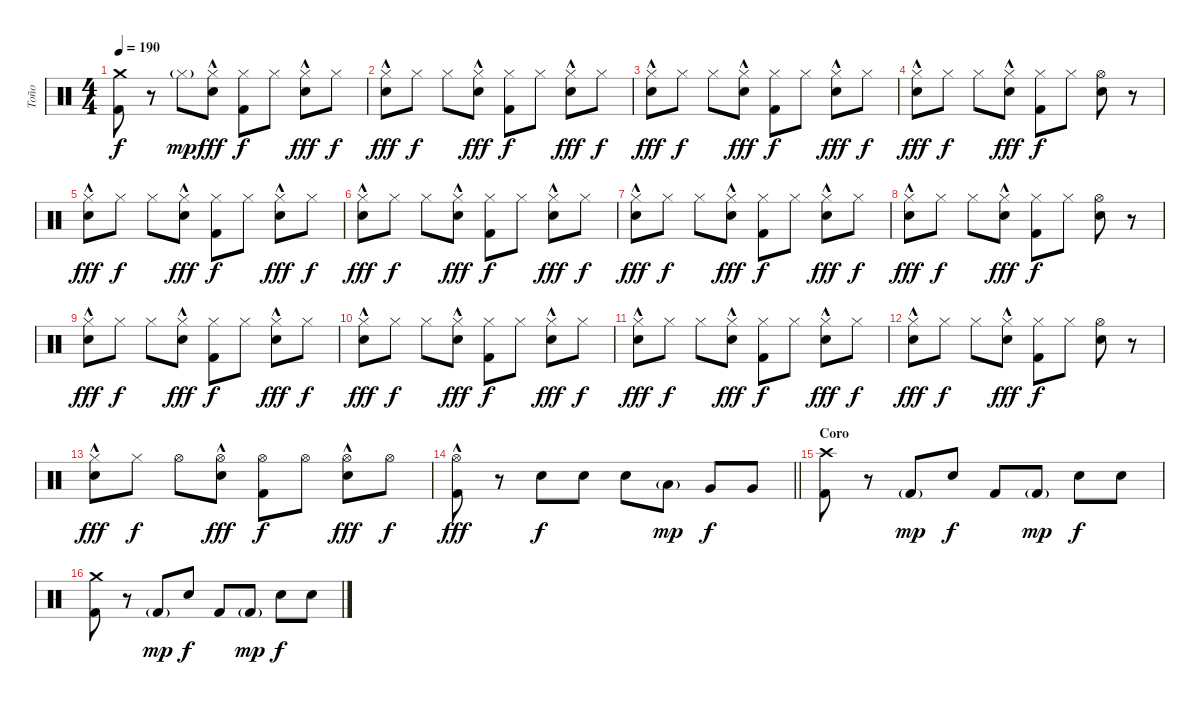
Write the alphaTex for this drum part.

\track ("Toño" "Toño") {instrument percussion}
\staff {score}
\articulation defaults
\ts (4 4)
\tempo 190
\clef neutral
\ks c
("Crash medium (hit)" "Kick (hit) 2").8{dy f} r.8 "Hi-Hat (closed)"{g}.8{dy mp} ("Hi-Hat (closed)"{hac} "Snare (hit) 2").8{dy fff} ("Hi-Hat (closed)" "Kick (hit) 2").8{dy f} "Hi-Hat (closed)".8 ("Hi-Hat (closed)"{hac} "Snare (hit) 2").8{dy fff} "Hi-Hat (closed)".8{dy f} |
("Hi-Hat (closed)"{hac} "Snare (hit) 2").8{dy fff} "Hi-Hat (closed)".8{dy f} "Hi-Hat (closed)".8 ("Hi-Hat (closed)"{hac} "Snare (hit) 2").8{dy fff} ("Hi-Hat (closed)" "Kick (hit) 2").8{dy f} "Hi-Hat (closed)".8 ("Hi-Hat (closed)"{hac} "Snare (hit) 2").8{dy fff} "Hi-Hat (closed)".8{dy f} |
("Hi-Hat (closed)"{hac} "Snare (hit) 2").8{dy fff} "Hi-Hat (closed)".8{dy f} "Hi-Hat (closed)".8 ("Hi-Hat (closed)"{hac} "Snare (hit) 2").8{dy fff} ("Hi-Hat (closed)" "Kick (hit) 2").8{dy f} "Hi-Hat (closed)".8 ("Hi-Hat (closed)"{hac} "Snare (hit) 2").8{dy fff} "Hi-Hat (closed)".8{dy f} |
("Hi-Hat (closed)"{hac} "Snare (hit) 2").8{dy fff} "Hi-Hat (closed)".8{dy f} "Hi-Hat (closed)".8 ("Hi-Hat (closed)"{hac} "Snare (hit) 2").8{dy fff} ("Hi-Hat (closed)" "Kick (hit) 2").8{dy f} "Hi-Hat (closed)".8 ("Hi-Hat (open)" "Snare (hit) 2").8 r.8 |
("Hi-Hat (closed)"{hac} "Snare (hit) 2").8{dy fff} "Hi-Hat (closed)".8{dy f} "Hi-Hat (closed)".8 ("Hi-Hat (closed)"{hac} "Snare (hit) 2").8{dy fff} ("Hi-Hat (closed)" "Kick (hit) 2").8{dy f} "Hi-Hat (closed)".8 ("Hi-Hat (closed)"{hac} "Snare (hit) 2").8{dy fff} "Hi-Hat (closed)".8{dy f} |
("Hi-Hat (closed)"{hac} "Snare (hit) 2").8{dy fff} "Hi-Hat (closed)".8{dy f} "Hi-Hat (closed)".8 ("Hi-Hat (closed)"{hac} "Snare (hit) 2").8{dy fff} ("Hi-Hat (closed)" "Kick (hit) 2").8{dy f} "Hi-Hat (closed)".8 ("Hi-Hat (closed)"{hac} "Snare (hit) 2").8{dy fff} "Hi-Hat (closed)".8{dy f} |
("Hi-Hat (closed)"{hac} "Snare (hit) 2").8{dy fff} "Hi-Hat (closed)".8{dy f} "Hi-Hat (closed)".8 ("Hi-Hat (closed)"{hac} "Snare (hit) 2").8{dy fff} ("Hi-Hat (closed)" "Kick (hit) 2").8{dy f} "Hi-Hat (closed)".8 ("Hi-Hat (closed)"{hac} "Snare (hit) 2").8{dy fff} "Hi-Hat (closed)".8{dy f} |
("Hi-Hat (closed)"{hac} "Snare (hit) 2").8{dy fff} "Hi-Hat (closed)".8{dy f} "Hi-Hat (closed)".8 ("Hi-Hat (closed)"{hac} "Snare (hit) 2").8{dy fff} ("Hi-Hat (closed)" "Kick (hit) 2").8{dy f} "Hi-Hat (closed)".8 ("Hi-Hat (open)" "Snare (hit) 2").8 r.8 |
("Hi-Hat (closed)"{hac} "Snare (hit) 2").8{dy fff} "Hi-Hat (closed)".8{dy f} "Hi-Hat (closed)".8 ("Hi-Hat (closed)"{hac} "Snare (hit) 2").8{dy fff} ("Hi-Hat (closed)" "Kick (hit) 2").8{dy f} "Hi-Hat (closed)".8 ("Hi-Hat (closed)"{hac} "Snare (hit) 2").8{dy fff} "Hi-Hat (closed)".8{dy f} |
("Hi-Hat (closed)"{hac} "Snare (hit) 2").8{dy fff} "Hi-Hat (closed)".8{dy f} "Hi-Hat (closed)".8 ("Hi-Hat (closed)"{hac} "Snare (hit) 2").8{dy fff} ("Hi-Hat (closed)" "Kick (hit) 2").8{dy f} "Hi-Hat (closed)".8 ("Hi-Hat (closed)"{hac} "Snare (hit) 2").8{dy fff} "Hi-Hat (closed)".8{dy f} |
("Hi-Hat (closed)"{hac} "Snare (hit) 2").8{dy fff} "Hi-Hat (closed)".8{dy f} "Hi-Hat (closed)".8 ("Hi-Hat (closed)"{hac} "Snare (hit) 2").8{dy fff} ("Hi-Hat (closed)" "Kick (hit) 2").8{dy f} "Hi-Hat (closed)".8 ("Hi-Hat (closed)"{hac} "Snare (hit) 2").8{dy fff} "Hi-Hat (closed)".8{dy f} |
("Hi-Hat (closed)"{hac} "Snare (hit) 2").8{dy fff} "Hi-Hat (closed)".8{dy f} "Hi-Hat (closed)".8 ("Hi-Hat (closed)"{hac} "Snare (hit) 2").8{dy fff} ("Hi-Hat (closed)" "Kick (hit) 2").8{dy f} "Hi-Hat (closed)".8 ("Hi-Hat (open)" "Snare (hit) 2").8 r.8 |
("Hi-Hat (closed)"{hac} "Snare (hit) 2").8{dy fff} "Hi-Hat (closed)".8{dy f} "Hi-Hat (open)".8 ("Hi-Hat (open)"{hac} "Snare (hit) 2").8{dy fff} ("Hi-Hat (open)" "Kick (hit) 2").8{dy f} "Hi-Hat (open)".8 ("Hi-Hat (open)"{hac} "Snare (hit) 2").8{dy fff} "Hi-Hat (open)".8{dy f} |
\barLineRight lightlight
("Hi-Hat (open)"{hac} "Kick (hit) 2").8{dy fff} r.8 "Snare (hit) 2".8{dy f} "Snare (hit) 2".8 "Snare (hit) 2".8 "Low Tom (hit)"{g}.8{dy mp} "Very Low Tom (hit)".8{dy f} "Very Low Tom (hit)".8 |
\section ("" "Coro")
("Crash high (hit)" "Kick (hit) 2").8 r.8 "Kick (hit) 2"{g}.8{dy mp} "Snare (hit) 2".8{dy f} "Kick (hit) 2".8 "Kick (hit) 2"{g}.8{dy mp} "Snare (hit) 2".8{dy f} "Snare (hit) 2".8 |
("Crash medium (hit)" "Kick (hit) 2").8 r.8 "Kick (hit) 2"{g}.8{dy mp} "Snare (hit) 2".8{dy f} "Kick (hit) 2".8 "Kick (hit) 2"{g}.8{dy mp} "Snare (hit) 2".8{dy f} "Snare (hit) 2".8
